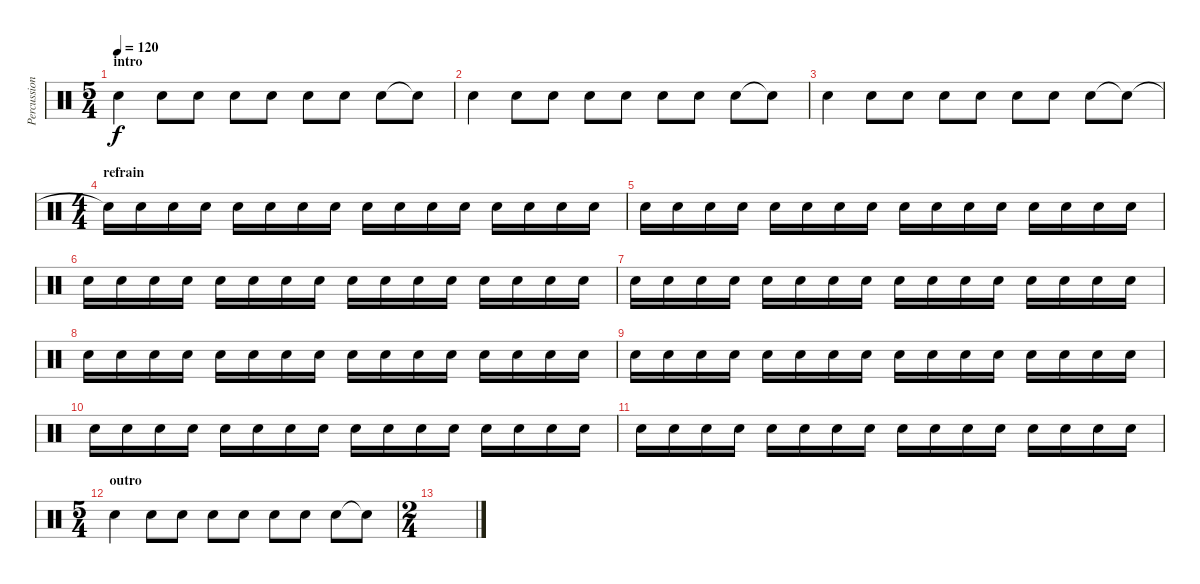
\track ("Percussions" "Percussion") {instrument percussion}
\staff {score}
\articulation defaults
\ts (5 4)
\section ("" "intro")
\tempo 120
\clef neutral
\ks c "Snare (hit) 2".4{dy f} "Snare (hit) 2".8 "Snare (hit) 2".8 "Snare (hit) 2".8 "Snare (hit) 2".8 "Snare (hit) 2".8 "Snare (hit) 2".8 "Snare (hit) 2".8 "Snare (hit)"{t}.8
|
"Snare (hit) 2".4 "Snare (hit) 2".8 "Snare (hit) 2".8 "Snare (hit) 2".8 "Snare (hit) 2".8 "Snare (hit) 2".8 "Snare (hit) 2".8 "Snare (hit) 2".8 "Snare (hit)"{t}.8 |
"Snare (hit) 2".4 "Snare (hit) 2".8 "Snare (hit) 2".8 "Snare (hit) 2".8 "Snare (hit) 2".8 "Snare (hit) 2".8 "Snare (hit) 2".8 "Snare (hit) 2".8 "Snare (hit)"{t}.8 |
\ts (4 4)
\section ("" "refrain")
"Snare (hit)"{t}.16 "Snare (hit) 2".16 "Snare (hit) 2".16 "Snare (hit) 2".16 "Snare (hit) 2".16 "Snare (hit) 2".16 "Snare (hit) 2".16 "Snare (hit) 2".16 "Snare (hit) 2".16 "Snare (hit) 2".16 "Snare (hit) 2".16 "Snare (hit) 2".16 "Snare (hit) 2".16 "Snare (hit) 2".16 "Snare (hit) 2".16 "Snare (hit) 2".16 |
"Snare (hit) 2".16 "Snare (hit) 2".16 "Snare (hit) 2".16 "Snare (hit) 2".16 "Snare (hit) 2".16 "Snare (hit) 2".16 "Snare (hit) 2".16 "Snare (hit) 2".16 "Snare (hit) 2".16 "Snare (hit) 2".16 "Snare (hit) 2".16 "Snare (hit) 2".16 "Snare (hit) 2".16 "Snare (hit) 2".16 "Snare (hit) 2".16 "Snare (hit) 2".16 |
"Snare (hit) 2".16 "Snare (hit) 2".16 "Snare (hit) 2".16 "Snare (hit) 2".16 "Snare (hit) 2".16 "Snare (hit) 2".16 "Snare (hit) 2".16 "Snare (hit) 2".16 "Snare (hit) 2".16 "Snare (hit) 2".16 "Snare (hit) 2".16 "Snare (hit) 2".16 "Snare (hit) 2".16 "Snare (hit) 2".16 "Snare (hit) 2".16 "Snare (hit) 2".16 |
"Snare (hit) 2".16 "Snare (hit) 2".16 "Snare (hit) 2".16 "Snare (hit) 2".16 "Snare (hit) 2".16 "Snare (hit) 2".16 "Snare (hit) 2".16 "Snare (hit) 2".16 "Snare (hit) 2".16 "Snare (hit) 2".16 "Snare (hit) 2".16 "Snare (hit) 2".16 "Snare (hit) 2".16 "Snare (hit) 2".16 "Snare (hit) 2".16 "Snare (hit) 2".16 |
"Snare (hit) 2".16 "Snare (hit) 2".16 "Snare (hit) 2".16 "Snare (hit) 2".16 "Snare (hit) 2".16 "Snare (hit) 2".16 "Snare (hit) 2".16 "Snare (hit) 2".16 "Snare (hit) 2".16 "Snare (hit) 2".16 "Snare (hit) 2".16 "Snare (hit) 2".16 "Snare (hit) 2".16 "Snare (hit) 2".16 "Snare (hit) 2".16 "Snare (hit) 2".16 |
"Snare (hit) 2".16 "Snare (hit) 2".16 "Snare (hit) 2".16 "Snare (hit) 2".16 "Snare (hit) 2".16 "Snare (hit) 2".16 "Snare (hit) 2".16 "Snare (hit) 2".16 "Snare (hit) 2".16 "Snare (hit) 2".16 "Snare (hit) 2".16 "Snare (hit) 2".16 "Snare (hit) 2".16 "Snare (hit) 2".16 "Snare (hit) 2".16 "Snare (hit) 2".16 |
"Snare (hit) 2".16 "Snare (hit) 2".16 "Snare (hit) 2".16 "Snare (hit) 2".16 "Snare (hit) 2".16 "Snare (hit) 2".16 "Snare (hit) 2".16 "Snare (hit) 2".16 "Snare (hit) 2".16 "Snare (hit) 2".16 "Snare (hit) 2".16 "Snare (hit) 2".16 "Snare (hit) 2".16 "Snare (hit) 2".16 "Snare (hit) 2".16 "Snare (hit) 2".16 |
"Snare (hit) 2".16 "Snare (hit) 2".16 "Snare (hit) 2".16 "Snare (hit) 2".16 "Snare (hit) 2".16 "Snare (hit) 2".16 "Snare (hit) 2".16 "Snare (hit) 2".16 "Snare (hit) 2".16 "Snare (hit) 2".16 "Snare (hit) 2".16 "Snare (hit) 2".16 "Snare (hit) 2".16 "Snare (hit) 2".16 "Snare (hit) 2".16 "Snare (hit) 2".16 |
\ts (5 4)
\section ("" "outro")
"Snare (hit) 2".4 "Snare (hit) 2".8 "Snare (hit) 2".8 "Snare (hit) 2".8 "Snare (hit) 2".8 "Snare (hit) 2".8 "Snare (hit) 2".8 "Snare (hit) 2".8 "Snare (hit)"{t}.8 |
\ts (2 4)
